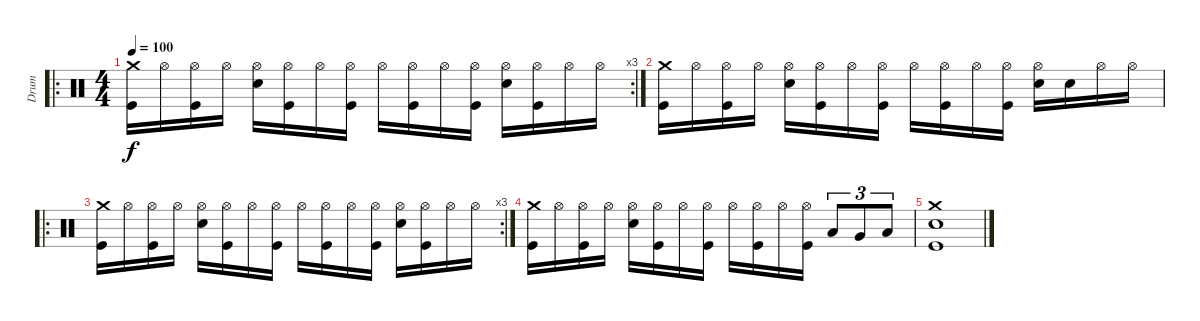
\track ("Drum" "Drum") {instrument percussion}
\staff {score}
\articulation defaults
\ro
\rc 3
\ts (4 4)
\tempo 100
\clef neutral
\ks c
("Crash medium (hit)" "Kick (hit)").16{dy f} "Hi-Hat (open)".16 ("Hi-Hat (open)" "Kick (hit)").16 "Hi-Hat (open)".16 ("Hi-Hat (open)" "Electric Snare (hit)").16 ("Hi-Hat (open)" "Kick (hit)").16 "Hi-Hat (open)".16 ("Hi-Hat (open)" "Kick (hit)").16 "Hi-Hat (open)".16 ("Hi-Hat (open)" "Kick (hit)").16 "Hi-Hat (open)".16 ("Hi-Hat (open)" "Kick (hit)").16 ("Hi-Hat (open)" "Electric Snare (hit)").16 ("Hi-Hat (open)" "Kick (hit)").16 "Hi-Hat (open)".16 "Hi-Hat (open)".16 |
("Crash medium (hit)" "Kick (hit)").16 "Hi-Hat (open)".16 ("Hi-Hat (open)" "Kick (hit)").16 "Hi-Hat (open)".16 ("Hi-Hat (open)" "Electric Snare (hit)").16 ("Hi-Hat (open)" "Kick (hit)").16 "Hi-Hat (open)".16 ("Hi-Hat (open)" "Kick (hit)").16 "Hi-Hat (open)".16 ("Hi-Hat (open)" "Kick (hit)").16 "Hi-Hat (open)".16 ("Hi-Hat (open)" "Kick (hit)").16 ("Hi-Hat (open)" "Electric Snare (hit)").16 "Snare (hit)".16 "Hi-Hat (open)".16 "Hi-Hat (open)".16 |
\ro
\rc 3
("Crash medium (hit)" "Kick (hit)").16 "Hi-Hat (open)".16 ("Hi-Hat (open)" "Kick (hit)").16 "Hi-Hat (open)".16 ("Hi-Hat (open)" "Electric Snare (hit)").16 ("Hi-Hat (open)" "Kick (hit)").16 "Hi-Hat (open)".16 ("Hi-Hat (open)" "Kick (hit)").16 "Hi-Hat (open)".16 ("Hi-Hat (open)" "Kick (hit)").16 "Hi-Hat (open)".16 ("Hi-Hat (open)" "Kick (hit)").16 ("Hi-Hat (open)" "Electric Snare (hit)").16 ("Hi-Hat (open)" "Kick (hit)").16 "Hi-Hat (open)".16 "Hi-Hat (open)".16 |
("Crash medium (hit)" "Kick (hit)").16 "Hi-Hat (open)".16 ("Hi-Hat (open)" "Kick (hit)").16 "Hi-Hat (open)".16 ("Hi-Hat (open)" "Electric Snare (hit)").16 ("Hi-Hat (open)" "Kick (hit)").16 "Hi-Hat (open)".16 ("Hi-Hat (open)" "Kick (hit)").16 "Hi-Hat (open)".16 ("Hi-Hat (open)" "Kick (hit)").16 "Hi-Hat (open)".16 ("Hi-Hat (open)" "Kick (hit)").16 "Low Tom (hit)".8{tu (3 2)} "Very Low Tom (hit)".8{tu (3 2)} "Low Floor Tom (hit)".8{tu (3 2)} |
("Crash medium (hit)" "Electric Snare (hit)" "Kick (hit)").1
